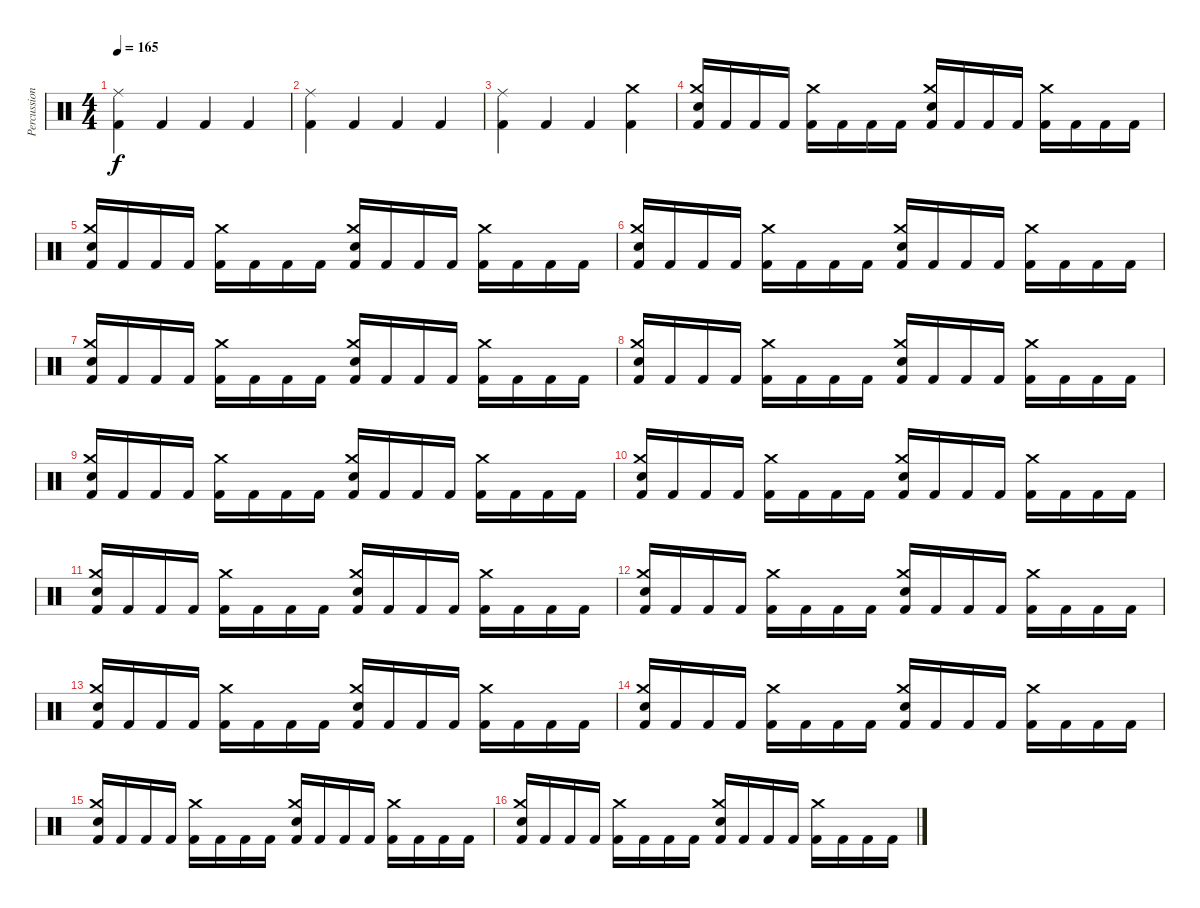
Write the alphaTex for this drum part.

\track ("Percussions" "Percussion") {instrument percussion}
\staff {score}
\articulation defaults
\ts (4 4)
\tempo 165
\clef neutral
\ks c
("Ride (middle)" "Kick (hit) 2").4{dy f} "Kick (hit) 2".4 "Kick (hit) 2".4 "Kick (hit) 2".4 |
("Ride (middle)" "Kick (hit) 2").4 "Kick (hit) 2".4 "Kick (hit) 2".4 "Kick (hit) 2".4 |
("Ride (middle)" "Kick (hit) 2").4 "Kick (hit) 2".4 "Kick (hit) 2".4 ("Crash medium (hit)" "Kick (hit) 2").4 |
("Crash medium (hit)" "Electric Snare (hit)" "Kick (hit) 2").16 "Kick (hit) 2".16 "Kick (hit) 2".16 "Kick (hit) 2".16 ("Crash medium (hit)" "Kick (hit) 2").16 "Kick (hit) 2".16 "Kick (hit) 2".16 "Kick (hit) 2".16 ("Crash medium (hit)" "Electric Snare (hit)" "Kick (hit) 2").16 "Kick (hit) 2".16 "Kick (hit) 2".16 "Kick (hit) 2".16 ("Crash medium (hit)" "Kick (hit) 2").16 "Kick (hit) 2".16 "Kick (hit) 2".16 "Kick (hit) 2".16 |
("Crash medium (hit)" "Electric Snare (hit)" "Kick (hit) 2").16 "Kick (hit) 2".16 "Kick (hit) 2".16 "Kick (hit) 2".16 ("Crash medium (hit)" "Kick (hit) 2").16 "Kick (hit) 2".16 "Kick (hit) 2".16 "Kick (hit) 2".16 ("Crash medium (hit)" "Electric Snare (hit)" "Kick (hit) 2").16 "Kick (hit) 2".16 "Kick (hit) 2".16 "Kick (hit) 2".16 ("Crash medium (hit)" "Kick (hit) 2").16 "Kick (hit) 2".16 "Kick (hit) 2".16 "Kick (hit) 2".16 |
("Crash medium (hit)" "Electric Snare (hit)" "Kick (hit) 2").16 "Kick (hit) 2".16 "Kick (hit) 2".16 "Kick (hit) 2".16 ("Crash medium (hit)" "Kick (hit) 2").16 "Kick (hit) 2".16 "Kick (hit) 2".16 "Kick (hit) 2".16 ("Crash medium (hit)" "Electric Snare (hit)" "Kick (hit) 2").16 "Kick (hit) 2".16 "Kick (hit) 2".16 "Kick (hit) 2".16 ("Crash medium (hit)" "Kick (hit) 2").16 "Kick (hit) 2".16 "Kick (hit) 2".16 "Kick (hit) 2".16 |
("Crash medium (hit)" "Electric Snare (hit)" "Kick (hit) 2").16 "Kick (hit) 2".16 "Kick (hit) 2".16 "Kick (hit) 2".16 ("Crash medium (hit)" "Kick (hit) 2").16 "Kick (hit) 2".16 "Kick (hit) 2".16 "Kick (hit) 2".16 ("Crash medium (hit)" "Electric Snare (hit)" "Kick (hit) 2").16 "Kick (hit) 2".16 "Kick (hit) 2".16 "Kick (hit) 2".16 ("Crash medium (hit)" "Kick (hit) 2").16 "Kick (hit) 2".16 "Kick (hit) 2".16 "Kick (hit) 2".16 |
("Crash medium (hit)" "Electric Snare (hit)" "Kick (hit) 2").16 "Kick (hit) 2".16 "Kick (hit) 2".16 "Kick (hit) 2".16 ("Crash medium (hit)" "Kick (hit) 2").16 "Kick (hit) 2".16 "Kick (hit) 2".16 "Kick (hit) 2".16 ("Crash medium (hit)" "Electric Snare (hit)" "Kick (hit) 2").16 "Kick (hit) 2".16 "Kick (hit) 2".16 "Kick (hit) 2".16 ("Crash medium (hit)" "Kick (hit) 2").16 "Kick (hit) 2".16 "Kick (hit) 2".16 "Kick (hit) 2".16 |
("Crash medium (hit)" "Electric Snare (hit)" "Kick (hit) 2").16 "Kick (hit) 2".16 "Kick (hit) 2".16 "Kick (hit) 2".16 ("Crash medium (hit)" "Kick (hit) 2").16 "Kick (hit) 2".16 "Kick (hit) 2".16 "Kick (hit) 2".16 ("Crash medium (hit)" "Electric Snare (hit)" "Kick (hit) 2").16 "Kick (hit) 2".16 "Kick (hit) 2".16 "Kick (hit) 2".16 ("Crash medium (hit)" "Kick (hit) 2").16 "Kick (hit) 2".16 "Kick (hit) 2".16 "Kick (hit) 2".16 |
("Crash medium (hit)" "Electric Snare (hit)" "Kick (hit) 2").16 "Kick (hit) 2".16 "Kick (hit) 2".16 "Kick (hit) 2".16 ("Crash medium (hit)" "Kick (hit) 2").16 "Kick (hit) 2".16 "Kick (hit) 2".16 "Kick (hit) 2".16 ("Crash medium (hit)" "Electric Snare (hit)" "Kick (hit) 2").16 "Kick (hit) 2".16 "Kick (hit) 2".16 "Kick (hit) 2".16 ("Crash medium (hit)" "Kick (hit) 2").16 "Kick (hit) 2".16 "Kick (hit) 2".16 "Kick (hit) 2".16 |
("Crash medium (hit)" "Electric Snare (hit)" "Kick (hit) 2").16 "Kick (hit) 2".16 "Kick (hit) 2".16 "Kick (hit) 2".16 ("Crash medium (hit)" "Kick (hit) 2").16 "Kick (hit) 2".16 "Kick (hit) 2".16 "Kick (hit) 2".16 ("Crash medium (hit)" "Electric Snare (hit)" "Kick (hit) 2").16 "Kick (hit) 2".16 "Kick (hit) 2".16 "Kick (hit) 2".16 ("Crash medium (hit)" "Kick (hit) 2").16 "Kick (hit) 2".16 "Kick (hit) 2".16 "Kick (hit) 2".16 |
("Crash medium (hit)" "Electric Snare (hit)" "Kick (hit) 2").16 "Kick (hit) 2".16 "Kick (hit) 2".16 "Kick (hit) 2".16 ("Crash medium (hit)" "Kick (hit) 2").16 "Kick (hit) 2".16 "Kick (hit) 2".16 "Kick (hit) 2".16 ("Crash medium (hit)" "Electric Snare (hit)" "Kick (hit) 2").16 "Kick (hit) 2".16 "Kick (hit) 2".16 "Kick (hit) 2".16 ("Crash medium (hit)" "Kick (hit) 2").16 "Kick (hit) 2".16 "Kick (hit) 2".16 "Kick (hit) 2".16 |
("Crash medium (hit)" "Electric Snare (hit)" "Kick (hit) 2").16 "Kick (hit) 2".16 "Kick (hit) 2".16 "Kick (hit) 2".16 ("Crash medium (hit)" "Kick (hit) 2").16 "Kick (hit) 2".16 "Kick (hit) 2".16 "Kick (hit) 2".16 ("Crash medium (hit)" "Electric Snare (hit)" "Kick (hit) 2").16 "Kick (hit) 2".16 "Kick (hit) 2".16 "Kick (hit) 2".16 ("Crash medium (hit)" "Kick (hit) 2").16 "Kick (hit) 2".16 "Kick (hit) 2".16 "Kick (hit) 2".16 |
("Crash medium (hit)" "Electric Snare (hit)" "Kick (hit) 2").16 "Kick (hit) 2".16 "Kick (hit) 2".16 "Kick (hit) 2".16 ("Crash medium (hit)" "Kick (hit) 2").16 "Kick (hit) 2".16 "Kick (hit) 2".16 "Kick (hit) 2".16 ("Crash medium (hit)" "Electric Snare (hit)" "Kick (hit) 2").16 "Kick (hit) 2".16 "Kick (hit) 2".16 "Kick (hit) 2".16 ("Crash medium (hit)" "Kick (hit) 2").16 "Kick (hit) 2".16 "Kick (hit) 2".16 "Kick (hit) 2".16 |
("Crash medium (hit)" "Electric Snare (hit)" "Kick (hit) 2").16 "Kick (hit) 2".16 "Kick (hit) 2".16 "Kick (hit) 2".16 ("Crash medium (hit)" "Kick (hit) 2").16 "Kick (hit) 2".16 "Kick (hit) 2".16 "Kick (hit) 2".16 ("Crash medium (hit)" "Electric Snare (hit)" "Kick (hit) 2").16 "Kick (hit) 2".16 "Kick (hit) 2".16 "Kick (hit) 2".16 ("Crash medium (hit)" "Kick (hit) 2").16 "Kick (hit) 2".16 "Kick (hit) 2".16 "Kick (hit) 2".16 |
("Crash medium (hit)" "Electric Snare (hit)" "Kick (hit) 2").16 "Kick (hit) 2".16 "Kick (hit) 2".16 "Kick (hit) 2".16 ("Crash medium (hit)" "Kick (hit) 2").16 "Kick (hit) 2".16 "Kick (hit) 2".16 "Kick (hit) 2".16 ("Crash medium (hit)" "Electric Snare (hit)" "Kick (hit) 2").16 "Kick (hit) 2".16 "Kick (hit) 2".16 "Kick (hit) 2".16 ("Crash medium (hit)" "Kick (hit) 2").16 "Kick (hit) 2".16 "Kick (hit) 2".16 "Kick (hit) 2".16
